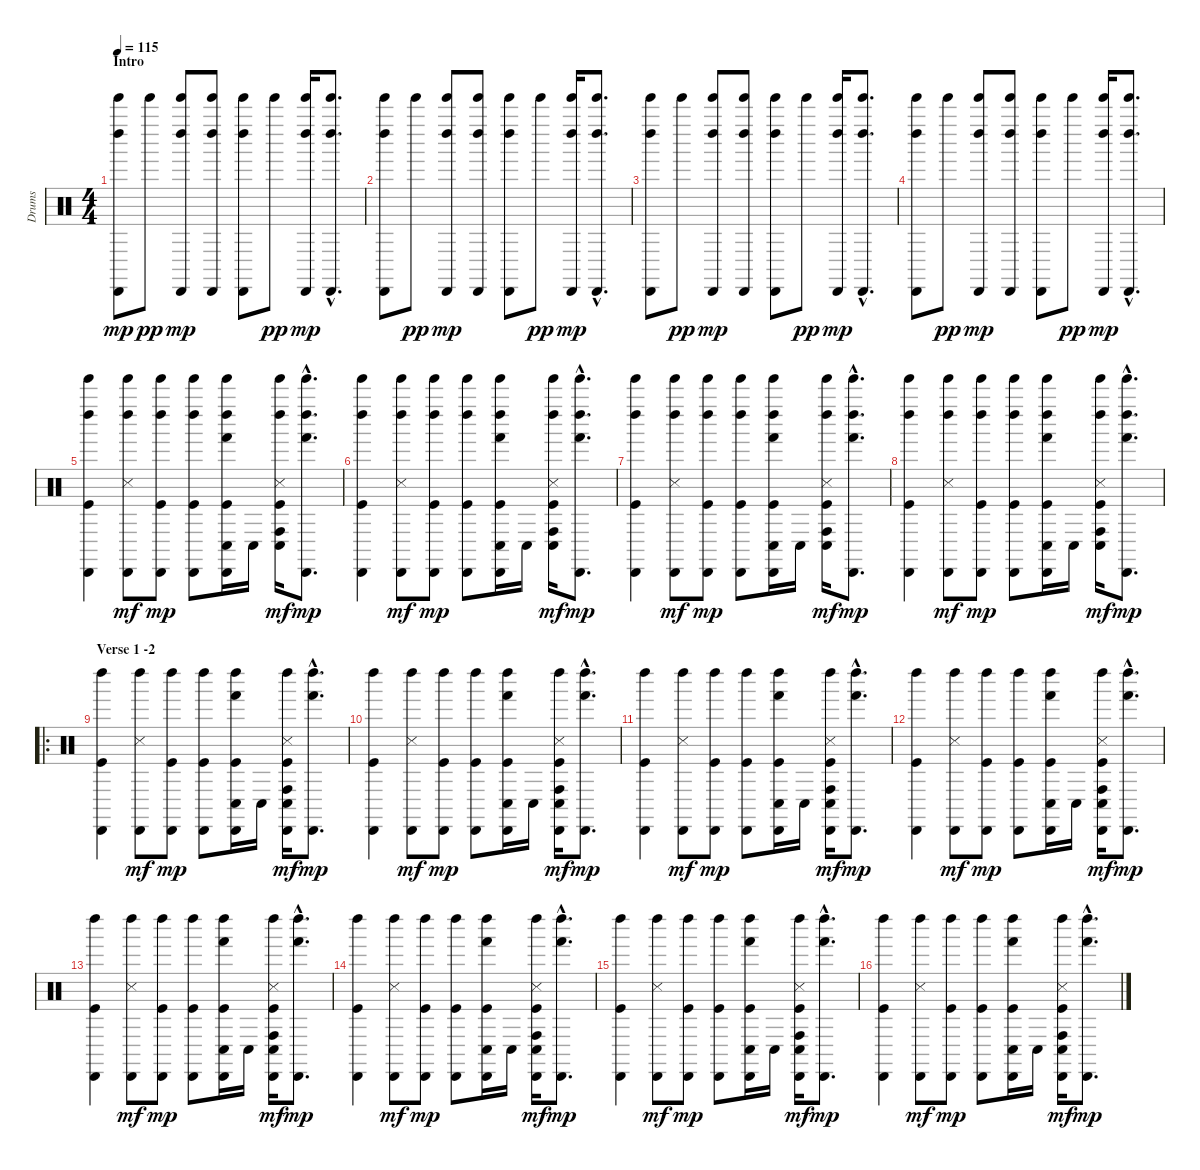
\track ("Drums" "Drums") {instrument percussion}
\staff {score}
\articulation defaults
\ts (4 4)
\section ("" "Intro")
\tempo 115
\clef neutral
\ks c
("Left Maraca (hit)" "Tinkle Bell (hit)" "Cabasa (hit)").8{dy mp volume 4} "Tinkle Bell (hit)".8{dy pp} ("Left Maraca (hit)" "Tinkle Bell (hit)" "Cabasa (hit)").8{dy mp volume 11} ("Left Maraca (hit)" "Tinkle Bell (hit)" "Cabasa (hit)").8 ("Left Maraca (hit)" "Tinkle Bell (hit)" "Cabasa (hit)").8 "Tinkle Bell (hit)".8{dy pp} ("Left Maraca (hit)" "Tinkle Bell (hit)" "Cabasa (hit)").16{dy mp} ("Left Maraca (hit)"{hac} "Tinkle Bell (hit)"{hac} "Cabasa (hit)"{hac}).8{d} |
("Left Maraca (hit)" "Tinkle Bell (hit)" "Cabasa (hit)").8 "Tinkle Bell (hit)".8{dy pp} ("Left Maraca (hit)" "Tinkle Bell (hit)" "Cabasa (hit)").8{dy mp} ("Left Maraca (hit)" "Tinkle Bell (hit)" "Cabasa (hit)").8 ("Left Maraca (hit)" "Tinkle Bell (hit)" "Cabasa (hit)").8 "Tinkle Bell (hit)".8{dy pp} ("Left Maraca (hit)" "Tinkle Bell (hit)" "Cabasa (hit)").16{dy mp} ("Left Maraca (hit)"{hac} "Tinkle Bell (hit)"{hac} "Cabasa (hit)"{hac}).8{d} |
("Left Maraca (hit)" "Tinkle Bell (hit)" "Cabasa (hit)").8 "Tinkle Bell (hit)".8{dy pp} ("Left Maraca (hit)" "Tinkle Bell (hit)" "Cabasa (hit)").8{dy mp} ("Left Maraca (hit)" "Tinkle Bell (hit)" "Cabasa (hit)").8 ("Left Maraca (hit)" "Tinkle Bell (hit)" "Cabasa (hit)").8 "Tinkle Bell (hit)".8{dy pp} ("Left Maraca (hit)" "Tinkle Bell (hit)" "Cabasa (hit)").16{dy mp} ("Left Maraca (hit)"{hac} "Tinkle Bell (hit)"{hac} "Cabasa (hit)"{hac}).8{d} |
("Left Maraca (hit)" "Tinkle Bell (hit)" "Cabasa (hit)").8 "Tinkle Bell (hit)".8{dy pp} ("Left Maraca (hit)" "Tinkle Bell (hit)" "Cabasa (hit)").8{dy mp} ("Left Maraca (hit)" "Tinkle Bell (hit)" "Cabasa (hit)").8 ("Left Maraca (hit)" "Tinkle Bell (hit)" "Cabasa (hit)").8 "Tinkle Bell (hit)".8{dy pp} ("Left Maraca (hit)" "Tinkle Bell (hit)" "Cabasa (hit)").16{dy mp} ("Left Maraca (hit)"{hac} "Tinkle Bell (hit)"{hac} "Cabasa (hit)"{hac}).8{d} |
("Tinkle Bell (hit)" "Left Maraca (hit)" "Cabasa (hit)" "Kick (hit)").4 ("Tinkle Bell (hit)" "Left Maraca (hit)" "Cabasa (hit)" "Snare (side stick) 3").8{dy mf} ("Tinkle Bell (hit)" "Left Maraca (hit)" "Cabasa (hit)" "Kick (hit)").8{dy mp} ("Tinkle Bell (hit)" "Left Maraca (hit)" "Cabasa (hit)" "Kick (hit)").8 ("Tinkle Bell (hit)" "Left Maraca (hit)" "Cabasa (hit)" "Conga low (hit)" "Hand (hit)" "Kick (hit)").16 "Conga low (hit)".16 ("Tinkle Bell (hit)" "Left Maraca (hit)" "Conga high (hit)" "Conga low (hit)" "Snare (side stick) 3" "Kick (hit)").16{dy mf} ("Tinkle Bell (hit)"{hac} "Left Maraca (hit)"{hac} "Cabasa (hit)"{hac} "Hand (hit)"{hac}).8{d dy mp} |
("Tinkle Bell (hit)" "Left Maraca (hit)" "Cabasa (hit)" "Kick (hit)").4 ("Tinkle Bell (hit)" "Left Maraca (hit)" "Cabasa (hit)" "Snare (side stick) 3").8{dy mf} ("Tinkle Bell (hit)" "Left Maraca (hit)" "Cabasa (hit)" "Kick (hit)").8{dy mp} ("Tinkle Bell (hit)" "Left Maraca (hit)" "Cabasa (hit)" "Kick (hit)").8 ("Tinkle Bell (hit)" "Left Maraca (hit)" "Cabasa (hit)" "Conga low (hit)" "Hand (hit)" "Kick (hit)").16 "Conga low (hit)".16 ("Tinkle Bell (hit)" "Left Maraca (hit)" "Conga high (hit)" "Conga low (hit)" "Snare (side stick) 3" "Kick (hit)").16{dy mf} ("Tinkle Bell (hit)"{hac} "Left Maraca (hit)"{hac} "Cabasa (hit)"{hac} "Hand (hit)"{hac}).8{d dy mp} |
("Tinkle Bell (hit)" "Left Maraca (hit)" "Cabasa (hit)" "Kick (hit)").4 ("Tinkle Bell (hit)" "Left Maraca (hit)" "Cabasa (hit)" "Snare (side stick) 3").8{dy mf} ("Tinkle Bell (hit)" "Left Maraca (hit)" "Cabasa (hit)" "Kick (hit)").8{dy mp} ("Tinkle Bell (hit)" "Left Maraca (hit)" "Cabasa (hit)" "Kick (hit)").8 ("Tinkle Bell (hit)" "Left Maraca (hit)" "Cabasa (hit)" "Conga low (hit)" "Hand (hit)" "Kick (hit)").16 "Conga low (hit)".16 ("Tinkle Bell (hit)" "Left Maraca (hit)" "Conga high (hit)" "Conga low (hit)" "Snare (side stick) 3" "Kick (hit)").16{dy mf} ("Tinkle Bell (hit)"{hac} "Left Maraca (hit)"{hac} "Cabasa (hit)"{hac} "Hand (hit)"{hac}).8{d dy mp} |
("Tinkle Bell (hit)" "Left Maraca (hit)" "Cabasa (hit)" "Kick (hit)").4 ("Tinkle Bell (hit)" "Left Maraca (hit)" "Cabasa (hit)" "Snare (side stick) 3").8{dy mf} ("Tinkle Bell (hit)" "Left Maraca (hit)" "Cabasa (hit)" "Kick (hit)").8{dy mp} ("Tinkle Bell (hit)" "Left Maraca (hit)" "Cabasa (hit)" "Kick (hit)").8 ("Tinkle Bell (hit)" "Left Maraca (hit)" "Cabasa (hit)" "Conga low (hit)" "Hand (hit)" "Kick (hit)").16 "Conga low (hit)".16 ("Tinkle Bell (hit)" "Left Maraca (hit)" "Conga high (hit)" "Conga low (hit)" "Snare (side stick) 3" "Kick (hit)").16{dy mf} ("Tinkle Bell (hit)"{hac} "Left Maraca (hit)"{hac} "Cabasa (hit)"{hac} "Hand (hit)"{hac}).8{d dy mp} |
\ro
\section ("" "Verse 1 -2")
("Left Maraca (hit)" "Cabasa (hit)" "Kick (hit)").4 ("Left Maraca (hit)" "Cabasa (hit)" "Snare (side stick) 3").8{dy mf} ("Left Maraca (hit)" "Cabasa (hit)" "Kick (hit)").8{dy mp} ("Left Maraca (hit)" "Cabasa (hit)" "Kick (hit)").8 ("Left Maraca (hit)" "Cabasa (hit)" "Conga low (hit)" "Hand (hit)" "Kick (hit)").16 "Conga low (hit)".16 ("Left Maraca (hit)" "Cabasa (hit)" "Conga low (hit)" "Conga high (hit)" "Snare (side stick) 3" "Kick (hit)").16{dy mf} ("Left Maraca (hit)"{hac} "Cabasa (hit)"{hac} "Hand (hit)"{hac}).8{d dy mp} |
("Left Maraca (hit)" "Cabasa (hit)" "Kick (hit)").4 ("Left Maraca (hit)" "Cabasa (hit)" "Snare (side stick) 3").8{dy mf} ("Left Maraca (hit)" "Cabasa (hit)" "Kick (hit)").8{dy mp} ("Left Maraca (hit)" "Cabasa (hit)" "Kick (hit)").8 ("Left Maraca (hit)" "Cabasa (hit)" "Conga low (hit)" "Hand (hit)" "Kick (hit)").16 "Conga low (hit)".16 ("Left Maraca (hit)" "Cabasa (hit)" "Conga low (hit)" "Conga high (hit)" "Snare (side stick) 3" "Kick (hit)").16{dy mf} ("Left Maraca (hit)"{hac} "Cabasa (hit)"{hac} "Hand (hit)"{hac}).8{d dy mp} |
("Left Maraca (hit)" "Cabasa (hit)" "Kick (hit)").4 ("Left Maraca (hit)" "Cabasa (hit)" "Snare (side stick) 3").8{dy mf} ("Left Maraca (hit)" "Cabasa (hit)" "Kick (hit)").8{dy mp} ("Left Maraca (hit)" "Cabasa (hit)" "Kick (hit)").8 ("Left Maraca (hit)" "Cabasa (hit)" "Conga low (hit)" "Hand (hit)" "Kick (hit)").16 "Conga low (hit)".16 ("Left Maraca (hit)" "Cabasa (hit)" "Conga low (hit)" "Conga high (hit)" "Snare (side stick) 3" "Kick (hit)").16{dy mf} ("Left Maraca (hit)"{hac} "Cabasa (hit)"{hac} "Hand (hit)"{hac}).8{d dy mp} |
("Left Maraca (hit)" "Cabasa (hit)" "Kick (hit)").4 ("Left Maraca (hit)" "Cabasa (hit)" "Snare (side stick) 3").8{dy mf} ("Left Maraca (hit)" "Cabasa (hit)" "Kick (hit)").8{dy mp} ("Left Maraca (hit)" "Cabasa (hit)" "Kick (hit)").8 ("Left Maraca (hit)" "Cabasa (hit)" "Conga low (hit)" "Hand (hit)" "Kick (hit)").16 "Conga low (hit)".16 ("Left Maraca (hit)" "Cabasa (hit)" "Conga low (hit)" "Conga high (hit)" "Snare (side stick) 3" "Kick (hit)").16{dy mf} ("Left Maraca (hit)"{hac} "Cabasa (hit)"{hac} "Hand (hit)"{hac}).8{d dy mp} |
("Left Maraca (hit)" "Cabasa (hit)" "Kick (hit)").4 ("Left Maraca (hit)" "Cabasa (hit)" "Snare (side stick) 3").8{dy mf} ("Left Maraca (hit)" "Cabasa (hit)" "Kick (hit)").8{dy mp} ("Left Maraca (hit)" "Cabasa (hit)" "Kick (hit)").8 ("Left Maraca (hit)" "Cabasa (hit)" "Conga low (hit)" "Hand (hit)" "Kick (hit)").16 "Conga low (hit)".16 ("Left Maraca (hit)" "Cabasa (hit)" "Conga low (hit)" "Conga high (hit)" "Snare (side stick) 3" "Kick (hit)").16{dy mf} ("Left Maraca (hit)"{hac} "Cabasa (hit)"{hac} "Hand (hit)"{hac}).8{d dy mp} |
("Left Maraca (hit)" "Cabasa (hit)" "Kick (hit)").4 ("Left Maraca (hit)" "Cabasa (hit)" "Snare (side stick) 3").8{dy mf} ("Left Maraca (hit)" "Cabasa (hit)" "Kick (hit)").8{dy mp} ("Left Maraca (hit)" "Cabasa (hit)" "Kick (hit)").8 ("Left Maraca (hit)" "Cabasa (hit)" "Conga low (hit)" "Hand (hit)" "Kick (hit)").16 "Conga low (hit)".16 ("Left Maraca (hit)" "Cabasa (hit)" "Conga low (hit)" "Conga high (hit)" "Snare (side stick) 3" "Kick (hit)").16{dy mf} ("Left Maraca (hit)"{hac} "Cabasa (hit)"{hac} "Hand (hit)"{hac}).8{d dy mp} |
("Left Maraca (hit)" "Cabasa (hit)" "Kick (hit)").4 ("Left Maraca (hit)" "Cabasa (hit)" "Snare (side stick) 3").8{dy mf} ("Left Maraca (hit)" "Cabasa (hit)" "Kick (hit)").8{dy mp} ("Left Maraca (hit)" "Cabasa (hit)" "Kick (hit)").8 ("Left Maraca (hit)" "Cabasa (hit)" "Conga low (hit)" "Hand (hit)" "Kick (hit)").16 "Conga low (hit)".16 ("Left Maraca (hit)" "Cabasa (hit)" "Conga low (hit)" "Conga high (hit)" "Snare (side stick) 3" "Kick (hit)").16{dy mf} ("Left Maraca (hit)"{hac} "Cabasa (hit)"{hac} "Hand (hit)"{hac}).8{d dy mp} |
("Left Maraca (hit)" "Cabasa (hit)" "Kick (hit)").4 ("Left Maraca (hit)" "Cabasa (hit)" "Snare (side stick) 3").8{dy mf} ("Left Maraca (hit)" "Cabasa (hit)" "Kick (hit)").8{dy mp} ("Left Maraca (hit)" "Cabasa (hit)" "Kick (hit)").8 ("Left Maraca (hit)" "Cabasa (hit)" "Conga low (hit)" "Hand (hit)" "Kick (hit)").16 "Conga low (hit)".16 ("Left Maraca (hit)" "Cabasa (hit)" "Conga low (hit)" "Conga high (hit)" "Snare (side stick) 3" "Kick (hit)").16{dy mf} ("Left Maraca (hit)"{hac} "Cabasa (hit)"{hac} "Hand (hit)"{hac}).8{d dy mp}
